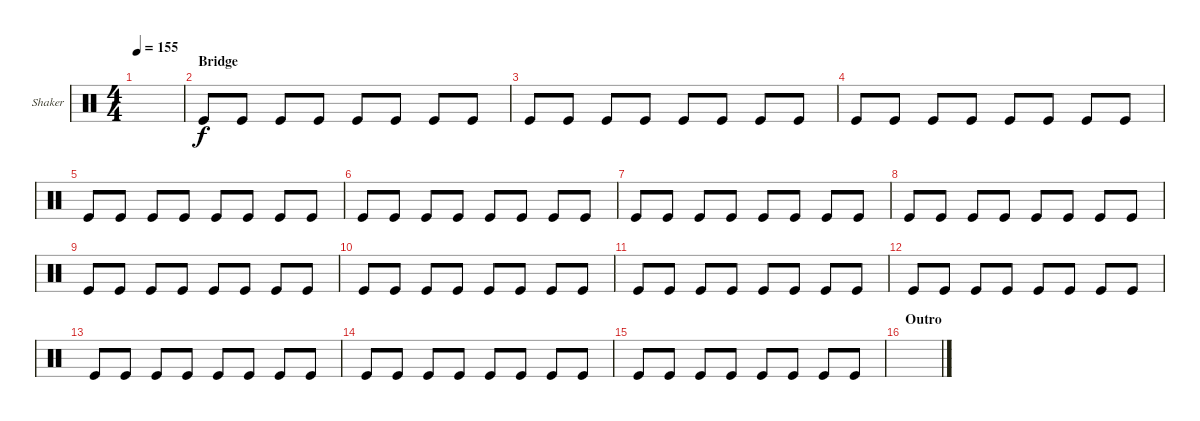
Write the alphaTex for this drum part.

\defaultSystemsLayout 4
\bracketExtendMode groupsimilarinstruments
\firstSystemTrackNameOrientation horizontal
\otherSystemsTrackNameOrientation horizontal
\track ("Shaker" "Shaker") {instrument percussion}
\staff {score}
\articulation defaults
\ts (4 4)
\tempo 155
\clef neutral
\scale
0.333333
\ks c
|
\section ("" "Bridge")
\scale
0.333333 "Kick (hit)".8 "Kick (hit)".8 "Kick (hit)".8 "Kick (hit)".8 "Kick (hit)".8 "Kick (hit)".8 "Kick (hit)".8 "Kick (hit)".8 |
\scale
0.333333 "Kick (hit)".8 "Kick (hit)".8 "Kick (hit)".8 "Kick (hit)".8 "Kick (hit)".8 "Kick (hit)".8 "Kick (hit)".8 "Kick (hit)".8 |
\scale
0.333333 "Kick (hit)".8 "Kick (hit)".8 "Kick (hit)".8 "Kick (hit)".8 "Kick (hit)".8 "Kick (hit)".8 "Kick (hit)".8 "Kick (hit)".8 |
\scale
0.333333 "Kick (hit)".8 "Kick (hit)".8 "Kick (hit)".8 "Kick (hit)".8 "Kick (hit)".8 "Kick (hit)".8 "Kick (hit)".8 "Kick (hit)".8 |
\scale
0.333333 "Kick (hit)".8 "Kick (hit)".8 "Kick (hit)".8 "Kick (hit)".8 "Kick (hit)".8 "Kick (hit)".8 "Kick (hit)".8 "Kick (hit)".8 |
\scale
0.333333 "Kick (hit)".8 "Kick (hit)".8 "Kick (hit)".8 "Kick (hit)".8 "Kick (hit)".8 "Kick (hit)".8 "Kick (hit)".8 "Kick (hit)".8 |
\scale
0.333333 "Kick (hit)".8 "Kick (hit)".8 "Kick (hit)".8 "Kick (hit)".8 "Kick (hit)".8 "Kick (hit)".8 "Kick (hit)".8 "Kick (hit)".8 |
\scale
0.333333 "Kick (hit)".8 "Kick (hit)".8 "Kick (hit)".8 "Kick (hit)".8 "Kick (hit)".8 "Kick (hit)".8 "Kick (hit)".8 "Kick (hit)".8 |
\scale
0.333333 "Kick (hit)".8 "Kick (hit)".8 "Kick (hit)".8 "Kick (hit)".8 "Kick (hit)".8 "Kick (hit)".8 "Kick (hit)".8 "Kick (hit)".8 |
\scale
0.333333 "Kick (hit)".8 "Kick (hit)".8 "Kick (hit)".8 "Kick (hit)".8 "Kick (hit)".8 "Kick (hit)".8 "Kick (hit)".8 "Kick (hit)".8 |
\scale
0.333333 "Kick (hit)".8 "Kick (hit)".8 "Kick (hit)".8 "Kick (hit)".8 "Kick (hit)".8 "Kick (hit)".8 "Kick (hit)".8 "Kick (hit)".8 |
\scale
0.333333 "Kick (hit)".8 "Kick (hit)".8 "Kick (hit)".8 "Kick (hit)".8 "Kick (hit)".8 "Kick (hit)".8 "Kick (hit)".8 "Kick (hit)".8 |
\scale
0.333333 "Kick (hit)".8 "Kick (hit)".8 "Kick (hit)".8 "Kick (hit)".8 "Kick (hit)".8 "Kick (hit)".8 "Kick (hit)".8 "Kick (hit)".8 |
\scale
0.333333 "Kick (hit)".8 "Kick (hit)".8 "Kick (hit)".8 "Kick (hit)".8 "Kick (hit)".8 "Kick (hit)".8 "Kick (hit)".8 "Kick (hit)".8 |
\section ("" "Outro")
\scale
0.333333
